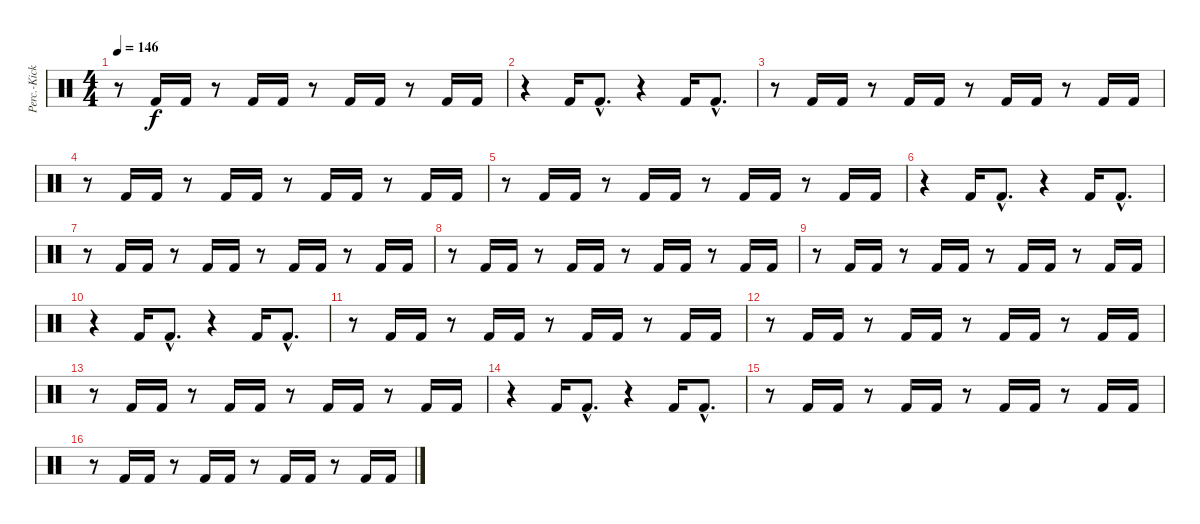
\track ("Perc.-Kick" "Perc.-Kick") {instrument percussion}
\staff {score}
\articulation defaults
\ts (4 4)
\tempo 146
\clef neutral
\ks c
r.8{dy f} "Kick (hit) 2".16 "Kick (hit) 2".16 r.8 "Kick (hit) 2".16 "Kick (hit) 2".16 r.8 "Kick (hit) 2".16 "Kick (hit) 2".16 r.8 "Kick (hit) 2".16 "Kick (hit) 2".16 |
r.4 "Kick (hit) 2".16 "Kick (hit) 2"{hac}.8{d} r.4 "Kick (hit) 2".16 "Kick (hit) 2"{hac}.8{d} |
r.8 "Kick (hit) 2".16 "Kick (hit) 2".16 r.8 "Kick (hit) 2".16 "Kick (hit) 2".16 r.8 "Kick (hit) 2".16 "Kick (hit) 2".16 r.8 "Kick (hit) 2".16 "Kick (hit) 2".16 |
r.8 "Kick (hit) 2".16 "Kick (hit) 2".16 r.8 "Kick (hit) 2".16 "Kick (hit) 2".16 r.8 "Kick (hit) 2".16 "Kick (hit) 2".16 r.8 "Kick (hit) 2".16 "Kick (hit) 2".16 |
r.8 "Kick (hit) 2".16 "Kick (hit) 2".16 r.8 "Kick (hit) 2".16 "Kick (hit) 2".16 r.8 "Kick (hit) 2".16 "Kick (hit) 2".16 r.8 "Kick (hit) 2".16 "Kick (hit) 2".16 |
r.4 "Kick (hit) 2".16 "Kick (hit) 2"{hac}.8{d} r.4 "Kick (hit) 2".16 "Kick (hit) 2"{hac}.8{d} |
r.8 "Kick (hit) 2".16 "Kick (hit) 2".16 r.8 "Kick (hit) 2".16 "Kick (hit) 2".16 r.8 "Kick (hit) 2".16 "Kick (hit) 2".16 r.8 "Kick (hit) 2".16 "Kick (hit) 2".16 |
r.8 "Kick (hit) 2".16 "Kick (hit) 2".16 r.8 "Kick (hit) 2".16 "Kick (hit) 2".16 r.8 "Kick (hit) 2".16 "Kick (hit) 2".16 r.8 "Kick (hit) 2".16 "Kick (hit) 2".16 |
r.8 "Kick (hit) 2".16 "Kick (hit) 2".16 r.8 "Kick (hit) 2".16 "Kick (hit) 2".16 r.8 "Kick (hit) 2".16 "Kick (hit) 2".16 r.8 "Kick (hit) 2".16 "Kick (hit) 2".16 |
r.4 "Kick (hit) 2".16 "Kick (hit) 2"{hac}.8{d} r.4 "Kick (hit) 2".16 "Kick (hit) 2"{hac}.8{d} |
r.8 "Kick (hit) 2".16 "Kick (hit) 2".16 r.8 "Kick (hit) 2".16 "Kick (hit) 2".16 r.8 "Kick (hit) 2".16 "Kick (hit) 2".16 r.8 "Kick (hit) 2".16 "Kick (hit) 2".16 |
r.8 "Kick (hit) 2".16 "Kick (hit) 2".16 r.8 "Kick (hit) 2".16 "Kick (hit) 2".16 r.8 "Kick (hit) 2".16 "Kick (hit) 2".16 r.8 "Kick (hit) 2".16 "Kick (hit) 2".16 |
r.8 "Kick (hit) 2".16 "Kick (hit) 2".16 r.8 "Kick (hit) 2".16 "Kick (hit) 2".16 r.8 "Kick (hit) 2".16 "Kick (hit) 2".16 r.8 "Kick (hit) 2".16 "Kick (hit) 2".16 |
r.4 "Kick (hit) 2".16 "Kick (hit) 2"{hac}.8{d} r.4 "Kick (hit) 2".16 "Kick (hit) 2"{hac}.8{d} |
r.8 "Kick (hit) 2".16 "Kick (hit) 2".16 r.8 "Kick (hit) 2".16 "Kick (hit) 2".16 r.8 "Kick (hit) 2".16 "Kick (hit) 2".16 r.8 "Kick (hit) 2".16 "Kick (hit) 2".16 |
r.8 "Kick (hit) 2".16 "Kick (hit) 2".16 r.8 "Kick (hit) 2".16 "Kick (hit) 2".16 r.8 "Kick (hit) 2".16 "Kick (hit) 2".16 r.8 "Kick (hit) 2".16 "Kick (hit) 2".16
